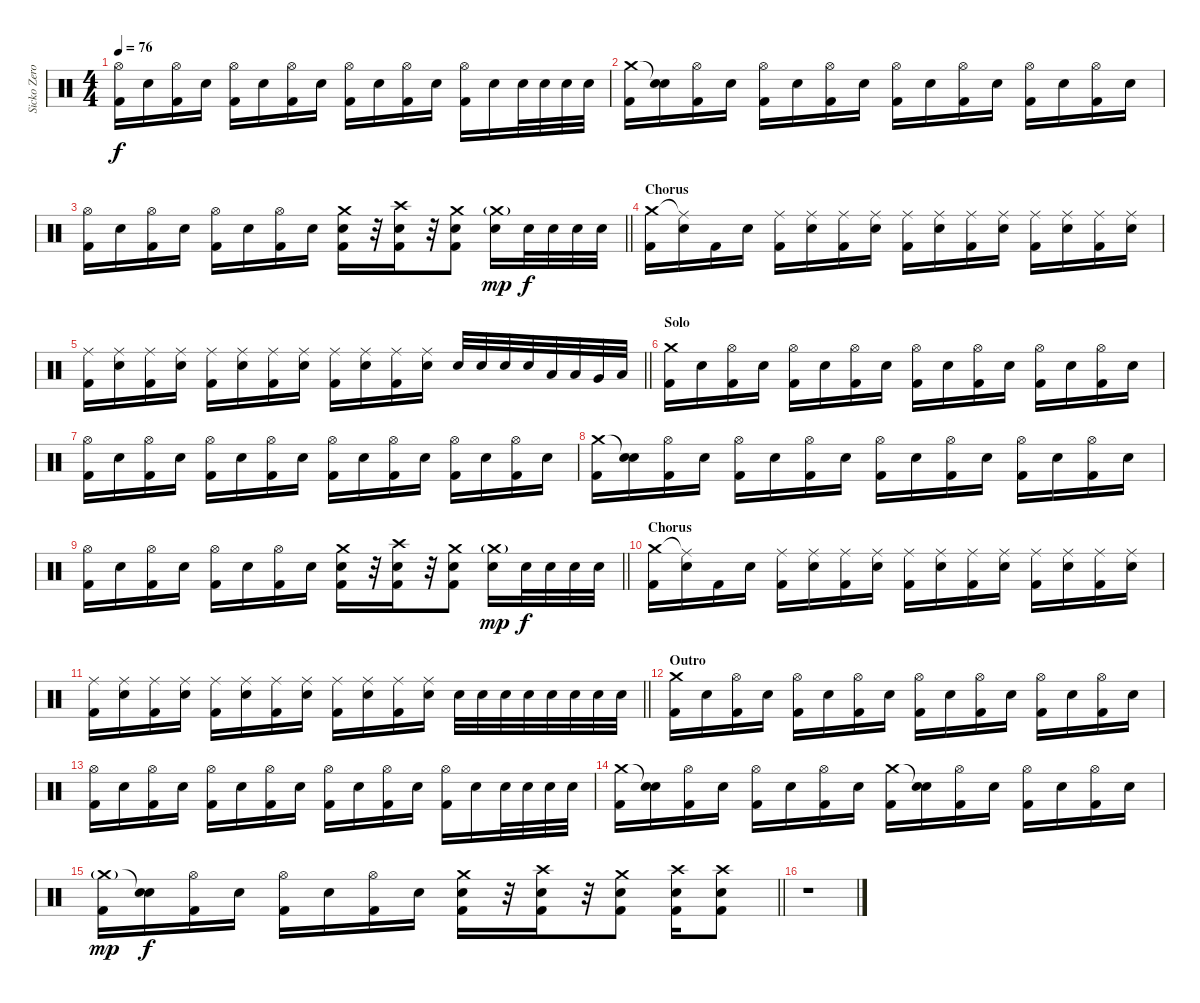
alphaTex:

\track ("Sicko Zero" "Sicko Zero") {instrument percussion}
\staff {score}
\articulation defaults
\ts (4 4)
\tempo 76
\clef neutral
\ks c
("Hi-Hat (open)" "Kick (hit) 2").16{dy f} "Electric Snare (hit)".16 ("Hi-Hat (open)" "Kick (hit) 2").16 "Electric Snare (hit)".16 ("Hi-Hat (open)" "Kick (hit) 2").16 "Electric Snare (hit)".16 ("Hi-Hat (open)" "Kick (hit) 2").16 "Electric Snare (hit)".16 ("Hi-Hat (open)" "Kick (hit) 2").16 "Electric Snare (hit)".16 ("Hi-Hat (open)" "Kick (hit) 2").16 "Electric Snare (hit)".16 ("Hi-Hat (open)" "Kick (hit) 2").16 "Electric Snare (hit)".16 "Electric Snare (hit)".32 "Electric Snare (hit)".32 "Electric Snare (hit)".32 "Electric Snare (hit)".32 |
("Crash medium (hit)" "Kick (hit) 2").16 ("Snare (hit)"{t} "Electric Snare (hit)").16 ("Hi-Hat (open)" "Kick (hit) 2").16 "Electric Snare (hit)".16 ("Hi-Hat (open)" "Kick (hit) 2").16 "Electric Snare (hit)".16 ("Hi-Hat (open)" "Kick (hit) 2").16 "Electric Snare (hit)".16 ("Hi-Hat (open)" "Kick (hit) 2").16 "Electric Snare (hit)".16 ("Hi-Hat (open)" "Kick (hit) 2").16 "Electric Snare (hit)".16 ("Hi-Hat (open)" "Kick (hit) 2").16 "Electric Snare (hit)".16 ("Hi-Hat (open)" "Kick (hit) 2").16 "Electric Snare (hit)".16 |
\barLineRight lightlight
("Hi-Hat (open)" "Kick (hit) 2").16 "Electric Snare (hit)".16 ("Hi-Hat (open)" "Kick (hit) 2").16 "Electric Snare (hit)".16 ("Hi-Hat (open)" "Kick (hit) 2").16 "Electric Snare (hit)".16 ("Hi-Hat (open)" "Kick (hit) 2").16 "Electric Snare (hit)".16 ("Crash medium (hit)" "Electric Snare (hit)" "Kick (hit) 2").16 r.32 ("Crash high (hit)" "Electric Snare (hit)" "Kick (hit) 2").16 r.32 ("Crash medium (hit)" "Electric Snare (hit)" "Kick (hit) 2").8 ("Crash medium (hit)"{g} "Electric Snare (hit)").16{dy mp} "Electric Snare (hit)".32{dy f} "Electric Snare (hit)".32 "Electric Snare (hit)".32 "Electric Snare (hit)".32 |
\section ("" "Chorus")
("Crash medium (hit)" "Kick (hit) 2").16 ("Ride (middle)"{t} "Electric Snare (hit)").16 "Kick (hit) 2".16 "Electric Snare (hit)".16 ("Ride (middle)" "Kick (hit) 2").16 ("Ride (middle)" "Electric Snare (hit)").16 ("Ride (middle)" "Kick (hit) 2").16 ("Ride (middle)" "Electric Snare (hit)").16 ("Ride (middle)" "Kick (hit) 2").16 ("Ride (middle)" "Electric Snare (hit)").16 ("Ride (middle)" "Kick (hit) 2").16 ("Ride (middle)" "Electric Snare (hit)").16 ("Ride (middle)" "Kick (hit) 2").16 ("Ride (middle)" "Electric Snare (hit)").16 ("Ride (middle)" "Kick (hit) 2").16 ("Ride (middle)" "Electric Snare (hit)").16 |
\barLineRight lightlight
("Ride (middle)" "Kick (hit) 2").16 ("Ride (middle)" "Electric Snare (hit)").16 ("Ride (middle)" "Kick (hit) 2").16 ("Ride (middle)" "Electric Snare (hit)").16 ("Ride (middle)" "Kick (hit) 2").16 ("Ride (middle)" "Electric Snare (hit)").16 ("Ride (middle)" "Kick (hit) 2").16 ("Ride (middle)" "Electric Snare (hit)").16 ("Ride (middle)" "Kick (hit) 2").16 ("Ride (middle)" "Electric Snare (hit)").16 ("Ride (middle)" "Kick (hit) 2").16 ("Ride (middle)" "Electric Snare (hit)").16 "Electric Snare (hit)".32 "Electric Snare (hit)".32 "Electric Snare (hit)".32 "Electric Snare (hit)".32 "Low Tom (hit)".32{balance 13} "Low Tom (hit)".32{balance 10} "Very Low Tom (hit)".32{balance 6} "Low Floor Tom (hit)".32{balance 3} |
\section ("" "Solo")
("Crash medium (hit)" "Kick (hit) 2").16 "Electric Snare (hit)".16 ("Hi-Hat (open)" "Kick (hit) 2").16 "Electric Snare (hit)".16 ("Hi-Hat (open)" "Kick (hit) 2").16 "Electric Snare (hit)".16 ("Hi-Hat (open)" "Kick (hit) 2").16 "Electric Snare (hit)".16 ("Hi-Hat (open)" "Kick (hit) 2").16 "Electric Snare (hit)".16 ("Hi-Hat (open)" "Kick (hit) 2").16 "Electric Snare (hit)".16 ("Hi-Hat (open)" "Kick (hit) 2").16 "Electric Snare (hit)".16 ("Hi-Hat (open)" "Kick (hit) 2").16 "Electric Snare (hit)".16 |
("Hi-Hat (open)" "Kick (hit) 2").16 "Electric Snare (hit)".16 ("Hi-Hat (open)" "Kick (hit) 2").16 "Electric Snare (hit)".16 ("Hi-Hat (open)" "Kick (hit) 2").16 "Electric Snare (hit)".16 ("Hi-Hat (open)" "Kick (hit) 2").16 "Electric Snare (hit)".16 ("Hi-Hat (open)" "Kick (hit) 2").16 "Electric Snare (hit)".16 ("Hi-Hat (open)" "Kick (hit) 2").16 "Electric Snare (hit)".16 ("Hi-Hat (open)" "Kick (hit) 2").16 "Electric Snare (hit)".16 ("Hi-Hat (open)" "Kick (hit) 2").16 "Electric Snare (hit)".16 |
("Crash medium (hit)" "Kick (hit) 2").16 ("Snare (hit)"{t} "Electric Snare (hit)").16 ("Hi-Hat (open)" "Kick (hit) 2").16 "Electric Snare (hit)".16 ("Hi-Hat (open)" "Kick (hit) 2").16 "Electric Snare (hit)".16 ("Hi-Hat (open)" "Kick (hit) 2").16 "Electric Snare (hit)".16 ("Hi-Hat (open)" "Kick (hit) 2").16 "Electric Snare (hit)".16 ("Hi-Hat (open)" "Kick (hit) 2").16 "Electric Snare (hit)".16 ("Hi-Hat (open)" "Kick (hit) 2").16 "Electric Snare (hit)".16 ("Hi-Hat (open)" "Kick (hit) 2").16 "Electric Snare (hit)".16 |
\barLineRight lightlight
("Hi-Hat (open)" "Kick (hit) 2").16 "Electric Snare (hit)".16 ("Hi-Hat (open)" "Kick (hit) 2").16 "Electric Snare (hit)".16 ("Hi-Hat (open)" "Kick (hit) 2").16 "Electric Snare (hit)".16 ("Hi-Hat (open)" "Kick (hit) 2").16 "Electric Snare (hit)".16 ("Crash medium (hit)" "Electric Snare (hit)" "Kick (hit) 2").16 r.32 ("Crash high (hit)" "Electric Snare (hit)" "Kick (hit) 2").16 r.32 ("Crash medium (hit)" "Electric Snare (hit)" "Kick (hit) 2").8 ("Crash medium (hit)"{g} "Electric Snare (hit)").16{dy mp} "Electric Snare (hit)".32{dy f} "Electric Snare (hit)".32 "Electric Snare (hit)".32 "Electric Snare (hit)".32 |
\section ("" "Chorus")
("Crash medium (hit)" "Kick (hit) 2").16 ("Ride (middle)"{t} "Electric Snare (hit)").16 "Kick (hit) 2".16 "Electric Snare (hit)".16 ("Ride (middle)" "Kick (hit) 2").16 ("Ride (middle)" "Electric Snare (hit)").16 ("Ride (middle)" "Kick (hit) 2").16 ("Ride (middle)" "Electric Snare (hit)").16 ("Ride (middle)" "Kick (hit) 2").16 ("Ride (middle)" "Electric Snare (hit)").16 ("Ride (middle)" "Kick (hit) 2").16 ("Ride (middle)" "Electric Snare (hit)").16 ("Ride (middle)" "Kick (hit) 2").16 ("Ride (middle)" "Electric Snare (hit)").16 ("Ride (middle)" "Kick (hit) 2").16 ("Ride (middle)" "Electric Snare (hit)").16 |
\barLineRight lightlight
("Ride (middle)" "Kick (hit) 2").16 ("Ride (middle)" "Electric Snare (hit)").16 ("Ride (middle)" "Kick (hit) 2").16 ("Ride (middle)" "Electric Snare (hit)").16 ("Ride (middle)" "Kick (hit) 2").16 ("Ride (middle)" "Electric Snare (hit)").16 ("Ride (middle)" "Kick (hit) 2").16 ("Ride (middle)" "Electric Snare (hit)").16 ("Ride (middle)" "Kick (hit) 2").16 ("Ride (middle)" "Electric Snare (hit)").16 ("Ride (middle)" "Kick (hit) 2").16 ("Ride (middle)" "Electric Snare (hit)").16 "Electric Snare (hit)".32 "Electric Snare (hit)".32 "Electric Snare (hit)".32 "Electric Snare (hit)".32 "Electric Snare (hit)".32 "Electric Snare (hit)".32 "Electric Snare (hit)".32 "Electric Snare (hit)".32 |
\section ("" "Outro")
("Crash medium (hit)" "Kick (hit) 2").16 "Electric Snare (hit)".16 ("Hi-Hat (open)" "Kick (hit) 2").16 "Electric Snare (hit)".16 ("Hi-Hat (open)" "Kick (hit) 2").16 "Electric Snare (hit)".16 ("Hi-Hat (open)" "Kick (hit) 2").16 "Electric Snare (hit)".16 ("Hi-Hat (open)" "Kick (hit) 2").16 "Electric Snare (hit)".16 ("Hi-Hat (open)" "Kick (hit) 2").16 "Electric Snare (hit)".16 ("Hi-Hat (open)" "Kick (hit) 2").16 "Electric Snare (hit)".16 ("Hi-Hat (open)" "Kick (hit) 2").16 "Electric Snare (hit)".16 |
("Hi-Hat (open)" "Kick (hit) 2").16 "Electric Snare (hit)".16 ("Hi-Hat (open)" "Kick (hit) 2").16 "Electric Snare (hit)".16 ("Hi-Hat (open)" "Kick (hit) 2").16 "Electric Snare (hit)".16 ("Hi-Hat (open)" "Kick (hit) 2").16 "Electric Snare (hit)".16 ("Hi-Hat (open)" "Kick (hit) 2").16 "Electric Snare (hit)".16 ("Hi-Hat (open)" "Kick (hit) 2").16 "Electric Snare (hit)".16 ("Hi-Hat (open)" "Kick (hit) 2").16 "Electric Snare (hit)".16 "Electric Snare (hit)".32 "Electric Snare (hit)".32 "Electric Snare (hit)".32 "Electric Snare (hit)".32 |
("Crash medium (hit)" "Kick (hit) 2").16 ("Snare (hit)"{t} "Electric Snare (hit)").16 ("Hi-Hat (open)" "Kick (hit) 2").16 "Electric Snare (hit)".16 ("Hi-Hat (open)" "Kick (hit) 2").16 "Electric Snare (hit)".16 ("Hi-Hat (open)" "Kick (hit) 2").16 "Electric Snare (hit)".16 ("Crash medium (hit)" "Kick (hit) 2").16 ("Snare (hit)"{t} "Electric Snare (hit)").16 ("Hi-Hat (open)" "Kick (hit) 2").16 "Electric Snare (hit)".16 ("Hi-Hat (open)" "Kick (hit) 2").16 "Electric Snare (hit)".16 ("Hi-Hat (open)" "Kick (hit) 2").16 "Electric Snare (hit)".16 |
\barLineRight lightlight
("Crash medium (hit)"{g} "Kick (hit) 2").16{dy mp} ("Snare (hit)"{t} "Electric Snare (hit)").16{dy f} ("Hi-Hat (open)" "Kick (hit) 2").16 "Electric Snare (hit)".16 ("Hi-Hat (open)" "Kick (hit) 2").16 "Electric Snare (hit)".16 ("Hi-Hat (open)" "Kick (hit) 2").16 "Electric Snare (hit)".16 ("Crash medium (hit)" "Electric Snare (hit)" "Kick (hit) 2").16 r.32 ("Crash high (hit)" "Electric Snare (hit)" "Kick (hit) 2").16 r.32 ("Crash medium (hit)" "Electric Snare (hit)" "Kick (hit) 2").8 ("Crash high (hit)" "Electric Snare (hit)" "Kick (hit) 2").16 ("Crash high (hit)" "Electric Snare (hit)" "Kick (hit) 2").8 |
r.1
